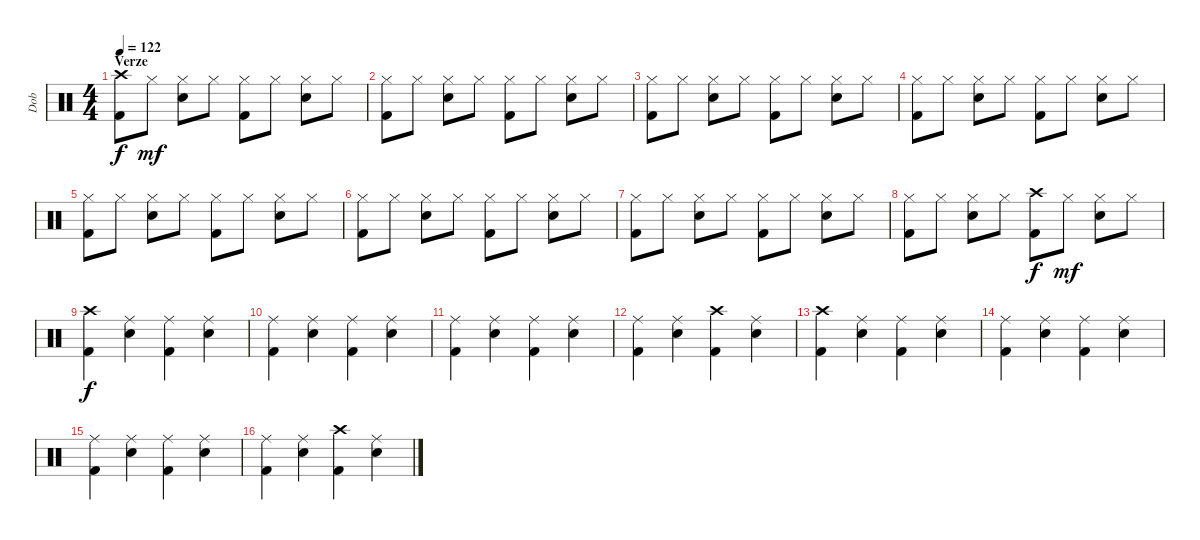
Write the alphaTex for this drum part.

\track ("Dob" "Dob") {instrument percussion}
\staff {score}
\articulation defaults
\ts (4 4)
\section ("" "Verze")
\tempo 122
\clef neutral
\ks c
("Crash high (hit)" "Kick (hit) 2").8{dy f} "Hi-Hat (closed)".8{dy mf} ("Hi-Hat (closed)" "Electric Snare (hit)").8 "Hi-Hat (closed)".8 ("Hi-Hat (closed)" "Kick (hit) 2").8 "Hi-Hat (closed)".8 ("Hi-Hat (closed)" "Electric Snare (hit)").8 "Hi-Hat (closed)".8 |
("Hi-Hat (closed)" "Kick (hit) 2").8 "Hi-Hat (closed)".8 ("Hi-Hat (closed)" "Electric Snare (hit)").8 "Hi-Hat (closed)".8 ("Hi-Hat (closed)" "Kick (hit) 2").8 "Hi-Hat (closed)".8 ("Hi-Hat (closed)" "Electric Snare (hit)").8 "Hi-Hat (closed)".8 |
("Hi-Hat (closed)" "Kick (hit) 2").8 "Hi-Hat (closed)".8 ("Hi-Hat (closed)" "Electric Snare (hit)").8 "Hi-Hat (closed)".8 ("Hi-Hat (closed)" "Kick (hit) 2").8 "Hi-Hat (closed)".8 ("Hi-Hat (closed)" "Electric Snare (hit)").8 "Hi-Hat (closed)".8 |
("Hi-Hat (closed)" "Kick (hit) 2").8 "Hi-Hat (closed)".8 ("Hi-Hat (closed)" "Electric Snare (hit)").8 "Hi-Hat (closed)".8 ("Hi-Hat (closed)" "Kick (hit) 2").8 "Hi-Hat (closed)".8 ("Hi-Hat (closed)" "Electric Snare (hit)").8 "Hi-Hat (closed)".8 |
("Hi-Hat (closed)" "Kick (hit) 2").8 "Hi-Hat (closed)".8 ("Hi-Hat (closed)" "Electric Snare (hit)").8 "Hi-Hat (closed)".8 ("Hi-Hat (closed)" "Kick (hit) 2").8 "Hi-Hat (closed)".8 ("Hi-Hat (closed)" "Electric Snare (hit)").8 "Hi-Hat (closed)".8 |
("Hi-Hat (closed)" "Kick (hit) 2").8 "Hi-Hat (closed)".8 ("Hi-Hat (closed)" "Electric Snare (hit)").8 "Hi-Hat (closed)".8 ("Hi-Hat (closed)" "Kick (hit) 2").8 "Hi-Hat (closed)".8 ("Hi-Hat (closed)" "Electric Snare (hit)").8 "Hi-Hat (closed)".8 |
("Hi-Hat (closed)" "Kick (hit) 2").8 "Hi-Hat (closed)".8 ("Hi-Hat (closed)" "Electric Snare (hit)").8 "Hi-Hat (closed)".8 ("Hi-Hat (closed)" "Kick (hit) 2").8 "Hi-Hat (closed)".8 ("Hi-Hat (closed)" "Electric Snare (hit)").8 "Hi-Hat (closed)".8 |
("Hi-Hat (closed)" "Kick (hit) 2").8 "Hi-Hat (closed)".8 ("Hi-Hat (closed)" "Electric Snare (hit)").8 "Hi-Hat (closed)".8 ("Crash high (hit)" "Kick (hit) 2").8{dy f} "Hi-Hat (closed)".8{dy mf} ("Hi-Hat (closed)" "Electric Snare (hit)").8 "Hi-Hat (closed)".8 |
("Crash high (hit)" "Kick (hit) 2").4{dy f} ("Ride (middle)" "Electric Snare (hit)").4 ("Ride (middle)" "Kick (hit) 2").4 ("Ride (middle)" "Electric Snare (hit)").4 |
("Ride (middle)" "Kick (hit) 2").4 ("Ride (middle)" "Electric Snare (hit)").4 ("Ride (middle)" "Kick (hit) 2").4 ("Ride (middle)" "Electric Snare (hit)").4 |
("Ride (middle)" "Kick (hit) 2").4 ("Ride (middle)" "Electric Snare (hit)").4 ("Ride (middle)" "Kick (hit) 2").4 ("Ride (middle)" "Electric Snare (hit)").4 |
("Ride (middle)" "Kick (hit) 2").4 ("Ride (middle)" "Electric Snare (hit)").4 ("Crash high (hit)" "Kick (hit) 2").4 ("Ride (middle)" "Electric Snare (hit)").4 |
("Crash high (hit)" "Kick (hit) 2").4 ("Ride (middle)" "Electric Snare (hit)").4 ("Ride (middle)" "Kick (hit) 2").4 ("Ride (middle)" "Electric Snare (hit)").4 |
("Ride (middle)" "Kick (hit) 2").4 ("Ride (middle)" "Electric Snare (hit)").4 ("Ride (middle)" "Kick (hit) 2").4 ("Ride (middle)" "Electric Snare (hit)").4 |
("Ride (middle)" "Kick (hit) 2").4 ("Ride (middle)" "Electric Snare (hit)").4 ("Ride (middle)" "Kick (hit) 2").4 ("Ride (middle)" "Electric Snare (hit)").4 |
("Ride (middle)" "Kick (hit) 2").4 ("Ride (middle)" "Electric Snare (hit)").4 ("Crash high (hit)" "Kick (hit) 2").4 ("Ride (middle)" "Electric Snare (hit)").4
